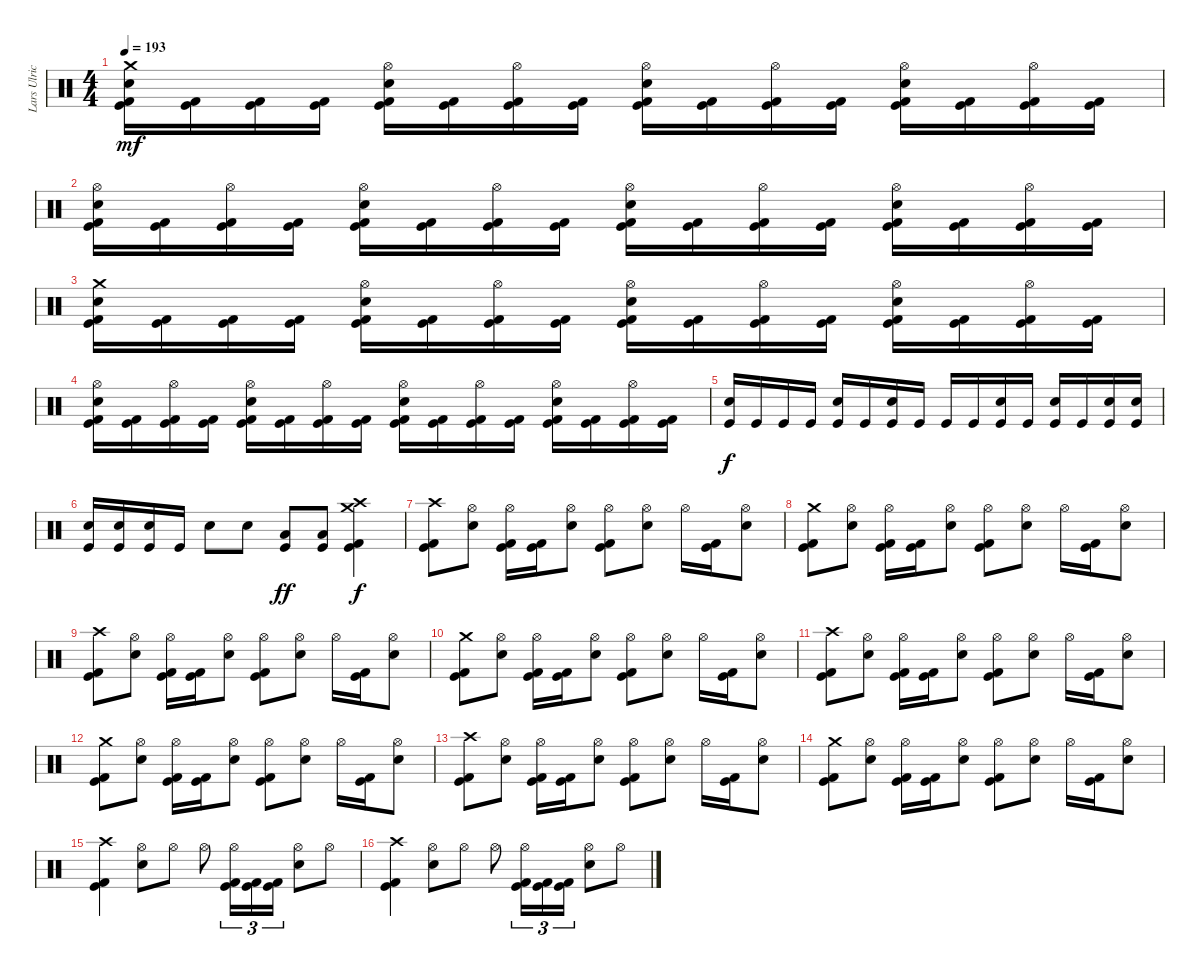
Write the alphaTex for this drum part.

\track ("Lars Ulrich" "Lars Ulric") {instrument percussion}
\staff {score}
\articulation defaults
\ts (4 4)
\tempo 193
\clef neutral
\ks c
("Crash medium (hit)" "Electric Snare (hit)" "Kick (hit) 2" "Kick (hit)").16{dy mf} ("Kick (hit) 2" "Kick (hit)").16 ("Kick (hit) 2" "Kick (hit)").16 ("Kick (hit) 2" "Kick (hit)").16 ("Hi-Hat (open)" "Electric Snare (hit)" "Kick (hit) 2" "Kick (hit)").16 ("Kick (hit) 2" "Kick (hit)").16 ("Hi-Hat (open)" "Kick (hit) 2" "Kick (hit)").16 ("Kick (hit) 2" "Kick (hit)").16 ("Hi-Hat (open)" "Electric Snare (hit)" "Kick (hit) 2" "Kick (hit)").16 ("Kick (hit) 2" "Kick (hit)").16 ("Hi-Hat (open)" "Kick (hit) 2" "Kick (hit)").16 ("Kick (hit) 2" "Kick (hit)").16 ("Hi-Hat (open)" "Electric Snare (hit)" "Kick (hit) 2" "Kick (hit)").16 ("Kick (hit) 2" "Kick (hit)").16 ("Hi-Hat (open)" "Kick (hit) 2" "Kick (hit)").16 ("Kick (hit) 2" "Kick (hit)").16 |
("Hi-Hat (open)" "Electric Snare (hit)" "Kick (hit) 2" "Kick (hit)").16 ("Kick (hit) 2" "Kick (hit)").16 ("Hi-Hat (open)" "Kick (hit) 2" "Kick (hit)").16 ("Kick (hit) 2" "Kick (hit)").16 ("Hi-Hat (open)" "Electric Snare (hit)" "Kick (hit) 2" "Kick (hit)").16 ("Kick (hit) 2" "Kick (hit)").16 ("Hi-Hat (open)" "Kick (hit) 2" "Kick (hit)").16 ("Kick (hit) 2" "Kick (hit)").16 ("Hi-Hat (open)" "Electric Snare (hit)" "Kick (hit) 2" "Kick (hit)").16 ("Kick (hit) 2" "Kick (hit)").16 ("Hi-Hat (open)" "Kick (hit) 2" "Kick (hit)").16 ("Kick (hit) 2" "Kick (hit)").16 ("Hi-Hat (open)" "Electric Snare (hit)" "Kick (hit) 2" "Kick (hit)").16 ("Kick (hit) 2" "Kick (hit)").16 ("Hi-Hat (open)" "Kick (hit) 2" "Kick (hit)").16 ("Kick (hit) 2" "Kick (hit)").16 |
("Crash medium (hit)" "Electric Snare (hit)" "Kick (hit) 2" "Kick (hit)").16 ("Kick (hit) 2" "Kick (hit)").16 ("Kick (hit) 2" "Kick (hit)").16 ("Kick (hit) 2" "Kick (hit)").16 ("Hi-Hat (open)" "Electric Snare (hit)" "Kick (hit) 2" "Kick (hit)").16 ("Kick (hit) 2" "Kick (hit)").16 ("Hi-Hat (open)" "Kick (hit) 2" "Kick (hit)").16 ("Kick (hit) 2" "Kick (hit)").16 ("Hi-Hat (open)" "Electric Snare (hit)" "Kick (hit) 2" "Kick (hit)").16 ("Kick (hit) 2" "Kick (hit)").16 ("Hi-Hat (open)" "Kick (hit) 2" "Kick (hit)").16 ("Kick (hit) 2" "Kick (hit)").16 ("Hi-Hat (open)" "Electric Snare (hit)" "Kick (hit) 2" "Kick (hit)").16 ("Kick (hit) 2" "Kick (hit)").16 ("Hi-Hat (open)" "Kick (hit) 2" "Kick (hit)").16 ("Kick (hit) 2" "Kick (hit)").16 |
("Hi-Hat (open)" "Electric Snare (hit)" "Kick (hit) 2" "Kick (hit)").16 ("Kick (hit) 2" "Kick (hit)").16 ("Hi-Hat (open)" "Kick (hit) 2" "Kick (hit)").16 ("Kick (hit) 2" "Kick (hit)").16 ("Hi-Hat (open)" "Electric Snare (hit)" "Kick (hit) 2" "Kick (hit)").16 ("Kick (hit) 2" "Kick (hit)").16 ("Hi-Hat (open)" "Kick (hit) 2" "Kick (hit)").16 ("Kick (hit) 2" "Kick (hit)").16 ("Hi-Hat (open)" "Electric Snare (hit)" "Kick (hit) 2" "Kick (hit)").16 ("Kick (hit) 2" "Kick (hit)").16 ("Hi-Hat (open)" "Kick (hit) 2" "Kick (hit)").16 ("Kick (hit) 2" "Kick (hit)").16 ("Hi-Hat (open)" "Electric Snare (hit)" "Kick (hit) 2" "Kick (hit)").16 ("Kick (hit) 2" "Kick (hit)").16 ("Hi-Hat (open)" "Kick (hit) 2" "Kick (hit)").16 ("Kick (hit) 2" "Kick (hit)").16 |
("Electric Snare (hit)" "Kick (hit)").16{dy f} "Kick (hit)".16 "Kick (hit)".16 "Kick (hit)".16 ("Electric Snare (hit)" "Kick (hit)").16 "Kick (hit)".16 ("Electric Snare (hit)" "Kick (hit)").16 "Kick (hit)".16 "Kick (hit)".16 "Kick (hit)".16 ("Electric Snare (hit)" "Kick (hit)").16 "Kick (hit)".16 ("Electric Snare (hit)" "Kick (hit)").16 "Kick (hit)".16 ("Electric Snare (hit)" "Kick (hit)").16 ("Electric Snare (hit)" "Kick (hit)").16 |
("Electric Snare (hit)" "Kick (hit)").16 ("Electric Snare (hit)" "Kick (hit)").16 ("Electric Snare (hit)" "Kick (hit)").16 "Kick (hit)".16 "Electric Snare (hit)".8 "Electric Snare (hit)".8 ("Low Tom (hit)" "Kick (hit)").8{dy ff} ("Low Tom (hit)" "Kick (hit)").8 ("Crash medium (hit)" "Crash high (hit)" "Kick (hit) 2" "Kick (hit)").4{dy f} |
("Crash high (hit)" "Kick (hit) 2" "Kick (hit)").8 ("Hi-Hat (open)" "Electric Snare (hit)").8 ("Hi-Hat (open)" "Kick (hit) 2" "Kick (hit)").16 ("Kick (hit) 2" "Kick (hit)").16 ("Hi-Hat (open)" "Electric Snare (hit)").8 ("Hi-Hat (open)" "Kick (hit) 2" "Kick (hit)").8 ("Hi-Hat (open)" "Electric Snare (hit)").8 "Hi-Hat (open)".16 ("Kick (hit) 2" "Kick (hit)").16 ("Hi-Hat (open)" "Electric Snare (hit)").8 |
("Crash medium (hit)" "Kick (hit) 2" "Kick (hit)").8 ("Hi-Hat (open)" "Electric Snare (hit)").8 ("Hi-Hat (open)" "Kick (hit) 2" "Kick (hit)").16 ("Kick (hit) 2" "Kick (hit)").16 ("Hi-Hat (open)" "Electric Snare (hit)").8 ("Hi-Hat (open)" "Kick (hit) 2" "Kick (hit)").8 ("Hi-Hat (open)" "Electric Snare (hit)").8 "Hi-Hat (open)".16 ("Kick (hit) 2" "Kick (hit)").16 ("Hi-Hat (open)" "Electric Snare (hit)").8 |
("Crash high (hit)" "Kick (hit) 2" "Kick (hit)").8 ("Hi-Hat (open)" "Electric Snare (hit)").8 ("Hi-Hat (open)" "Kick (hit) 2" "Kick (hit)").16 ("Kick (hit) 2" "Kick (hit)").16 ("Hi-Hat (open)" "Electric Snare (hit)").8 ("Hi-Hat (open)" "Kick (hit) 2" "Kick (hit)").8 ("Hi-Hat (open)" "Electric Snare (hit)").8 "Hi-Hat (open)".16 ("Kick (hit) 2" "Kick (hit)").16 ("Hi-Hat (open)" "Electric Snare (hit)").8 |
("Crash medium (hit)" "Kick (hit) 2" "Kick (hit)").8 ("Hi-Hat (open)" "Electric Snare (hit)").8 ("Hi-Hat (open)" "Kick (hit) 2" "Kick (hit)").16 ("Kick (hit) 2" "Kick (hit)").16 ("Hi-Hat (open)" "Electric Snare (hit)").8 ("Hi-Hat (open)" "Kick (hit) 2" "Kick (hit)").8 ("Hi-Hat (open)" "Electric Snare (hit)").8 "Hi-Hat (open)".16 ("Kick (hit) 2" "Kick (hit)").16 ("Hi-Hat (open)" "Electric Snare (hit)").8 |
("Crash high (hit)" "Kick (hit) 2" "Kick (hit)").8 ("Hi-Hat (open)" "Electric Snare (hit)").8 ("Hi-Hat (open)" "Kick (hit) 2" "Kick (hit)").16 ("Kick (hit) 2" "Kick (hit)").16 ("Hi-Hat (open)" "Electric Snare (hit)").8 ("Hi-Hat (open)" "Kick (hit) 2" "Kick (hit)").8 ("Hi-Hat (open)" "Electric Snare (hit)").8 "Hi-Hat (open)".16 ("Kick (hit) 2" "Kick (hit)").16 ("Hi-Hat (open)" "Electric Snare (hit)").8 |
("Crash medium (hit)" "Kick (hit) 2" "Kick (hit)").8 ("Hi-Hat (open)" "Electric Snare (hit)").8 ("Hi-Hat (open)" "Kick (hit) 2" "Kick (hit)").16 ("Kick (hit) 2" "Kick (hit)").16 ("Hi-Hat (open)" "Electric Snare (hit)").8 ("Hi-Hat (open)" "Kick (hit) 2" "Kick (hit)").8 ("Hi-Hat (open)" "Electric Snare (hit)").8 "Hi-Hat (open)".16 ("Kick (hit) 2" "Kick (hit)").16 ("Hi-Hat (open)" "Electric Snare (hit)").8 |
("Crash high (hit)" "Kick (hit) 2" "Kick (hit)").8 ("Hi-Hat (open)" "Electric Snare (hit)").8 ("Hi-Hat (open)" "Kick (hit) 2" "Kick (hit)").16 ("Kick (hit) 2" "Kick (hit)").16 ("Hi-Hat (open)" "Electric Snare (hit)").8 ("Hi-Hat (open)" "Kick (hit) 2" "Kick (hit)").8 ("Hi-Hat (open)" "Electric Snare (hit)").8 "Hi-Hat (open)".16 ("Kick (hit) 2" "Kick (hit)").16 ("Hi-Hat (open)" "Electric Snare (hit)").8 |
("Crash medium (hit)" "Kick (hit) 2" "Kick (hit)").8 ("Hi-Hat (open)" "Electric Snare (hit)").8 ("Hi-Hat (open)" "Kick (hit) 2" "Kick (hit)").16 ("Kick (hit) 2" "Kick (hit)").16 ("Hi-Hat (open)" "Electric Snare (hit)").8 ("Hi-Hat (open)" "Kick (hit) 2" "Kick (hit)").8 ("Hi-Hat (open)" "Electric Snare (hit)").8 "Hi-Hat (open)".16 ("Kick (hit) 2" "Kick (hit)").16 ("Hi-Hat (open)" "Electric Snare (hit)").8 |
("Crash high (hit)" "Kick (hit) 2" "Kick (hit)").4 ("Hi-Hat (open)" "Electric Snare (hit)").8 "Hi-Hat (open)".8 "Hi-Hat (open)".8 ("Hi-Hat (open)" "Kick (hit) 2" "Kick (hit)").16{tu (3 2)} ("Kick (hit) 2" "Kick (hit)").16{tu (3 2)} ("Kick (hit) 2" "Kick (hit)").16{tu (3 2)} ("Hi-Hat (open)" "Electric Snare (hit)").8 "Hi-Hat (open)".8 |
("Crash high (hit)" "Kick (hit) 2" "Kick (hit)").4 ("Hi-Hat (open)" "Electric Snare (hit)").8 "Hi-Hat (open)".8 "Hi-Hat (open)".8 ("Hi-Hat (open)" "Kick (hit) 2" "Kick (hit)").16{tu (3 2)} ("Kick (hit) 2" "Kick (hit)").16{tu (3 2)} ("Kick (hit) 2" "Kick (hit)").16{tu (3 2)} ("Hi-Hat (open)" "Electric Snare (hit)").8 "Hi-Hat (open)".8
